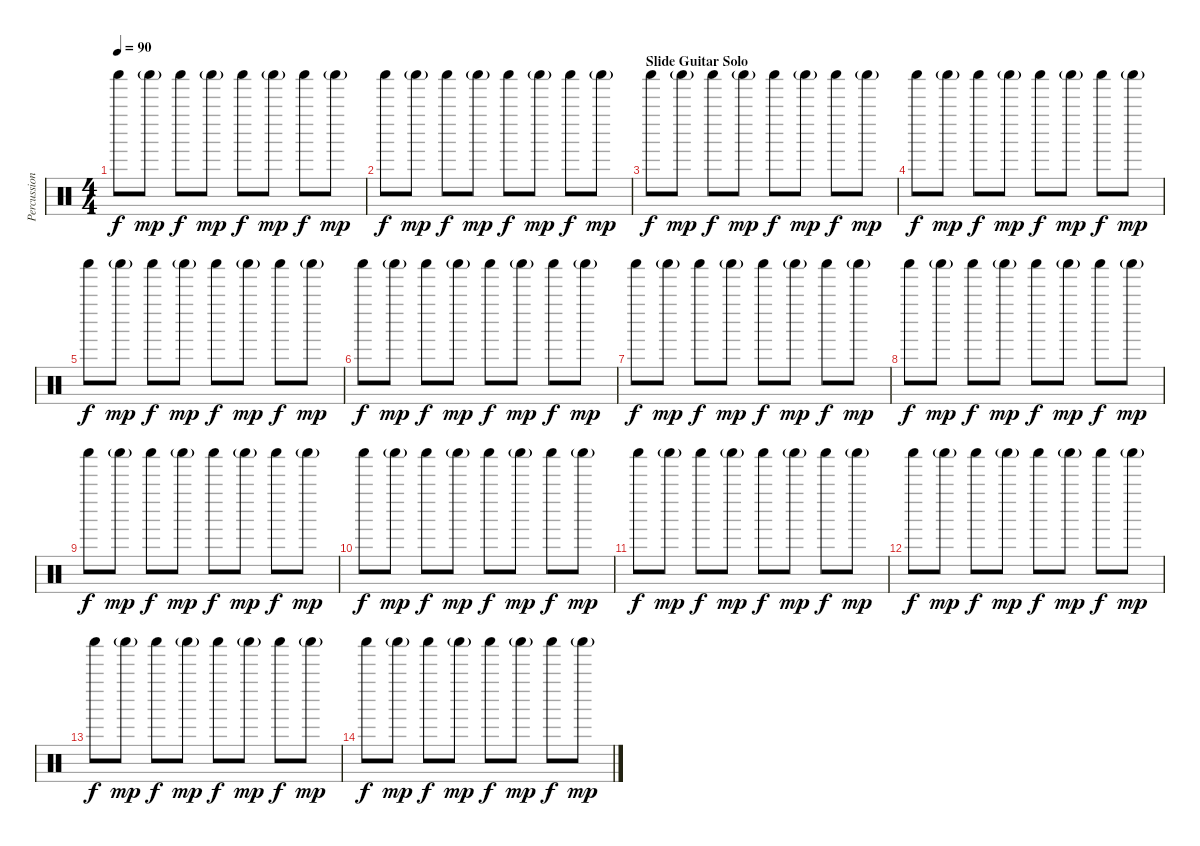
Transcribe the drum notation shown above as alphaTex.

\track ("Percussion 2" "Percussion") {instrument percussion}
\staff {score}
\articulation defaults
\ts (4 4)
\tempo 90
\clef neutral
\ks c "Shaker (hit)".8{dy f} "Shaker (hit)"{g}.8{dy mp} "Shaker (hit)".8{dy f} "Shaker (hit)"{g}.8{dy mp} "Shaker (hit)".8{dy f} "Shaker (hit)"{g}.8{dy mp} "Shaker (hit)".8{dy f} "Shaker (hit)"{g}.8{dy mp}
|
"Shaker (hit)".8{dy f} "Shaker (hit)"{g}.8{dy mp} "Shaker (hit)".8{dy f} "Shaker (hit)"{g}.8{dy mp} "Shaker (hit)".8{dy f} "Shaker (hit)"{g}.8{dy mp} "Shaker (hit)".8{dy f} "Shaker (hit)"{g}.8{dy mp} |
\section ("" "Slide Guitar Solo")
"Shaker (hit)".8{dy f} "Shaker (hit)"{g}.8{dy mp} "Shaker (hit)".8{dy f} "Shaker (hit)"{g}.8{dy mp} "Shaker (hit)".8{dy f} "Shaker (hit)"{g}.8{dy mp} "Shaker (hit)".8{dy f} "Shaker (hit)"{g}.8{dy mp} |
"Shaker (hit)".8{dy f} "Shaker (hit)"{g}.8{dy mp} "Shaker (hit)".8{dy f} "Shaker (hit)"{g}.8{dy mp} "Shaker (hit)".8{dy f} "Shaker (hit)"{g}.8{dy mp} "Shaker (hit)".8{dy f} "Shaker (hit)"{g}.8{dy mp} |
"Shaker (hit)".8{dy f} "Shaker (hit)"{g}.8{dy mp} "Shaker (hit)".8{dy f} "Shaker (hit)"{g}.8{dy mp} "Shaker (hit)".8{dy f} "Shaker (hit)"{g}.8{dy mp} "Shaker (hit)".8{dy f} "Shaker (hit)"{g}.8{dy mp} |
"Shaker (hit)".8{dy f} "Shaker (hit)"{g}.8{dy mp} "Shaker (hit)".8{dy f} "Shaker (hit)"{g}.8{dy mp} "Shaker (hit)".8{dy f} "Shaker (hit)"{g}.8{dy mp} "Shaker (hit)".8{dy f} "Shaker (hit)"{g}.8{dy mp} |
"Shaker (hit)".8{dy f} "Shaker (hit)"{g}.8{dy mp} "Shaker (hit)".8{dy f} "Shaker (hit)"{g}.8{dy mp} "Shaker (hit)".8{dy f} "Shaker (hit)"{g}.8{dy mp} "Shaker (hit)".8{dy f} "Shaker (hit)"{g}.8{dy mp} |
"Shaker (hit)".8{dy f} "Shaker (hit)"{g}.8{dy mp} "Shaker (hit)".8{dy f} "Shaker (hit)"{g}.8{dy mp} "Shaker (hit)".8{dy f} "Shaker (hit)"{g}.8{dy mp} "Shaker (hit)".8{dy f} "Shaker (hit)"{g}.8{dy mp} |
"Shaker (hit)".8{dy f} "Shaker (hit)"{g}.8{dy mp} "Shaker (hit)".8{dy f} "Shaker (hit)"{g}.8{dy mp} "Shaker (hit)".8{dy f} "Shaker (hit)"{g}.8{dy mp} "Shaker (hit)".8{dy f} "Shaker (hit)"{g}.8{dy mp} |
"Shaker (hit)".8{dy f} "Shaker (hit)"{g}.8{dy mp} "Shaker (hit)".8{dy f} "Shaker (hit)"{g}.8{dy mp} "Shaker (hit)".8{dy f} "Shaker (hit)"{g}.8{dy mp} "Shaker (hit)".8{dy f} "Shaker (hit)"{g}.8{dy mp} |
"Shaker (hit)".8{dy f} "Shaker (hit)"{g}.8{dy mp} "Shaker (hit)".8{dy f} "Shaker (hit)"{g}.8{dy mp} "Shaker (hit)".8{dy f} "Shaker (hit)"{g}.8{dy mp} "Shaker (hit)".8{dy f} "Shaker (hit)"{g}.8{dy mp} |
"Shaker (hit)".8{dy f} "Shaker (hit)"{g}.8{dy mp} "Shaker (hit)".8{dy f} "Shaker (hit)"{g}.8{dy mp} "Shaker (hit)".8{dy f} "Shaker (hit)"{g}.8{dy mp} "Shaker (hit)".8{dy f} "Shaker (hit)"{g}.8{dy mp} |
"Shaker (hit)".8{dy f} "Shaker (hit)"{g}.8{dy mp} "Shaker (hit)".8{dy f} "Shaker (hit)"{g}.8{dy mp} "Shaker (hit)".8{dy f} "Shaker (hit)"{g}.8{dy mp} "Shaker (hit)".8{dy f} "Shaker (hit)"{g}.8{dy mp} |
"Shaker (hit)".8{dy f} "Shaker (hit)"{g}.8{dy mp} "Shaker (hit)".8{dy f} "Shaker (hit)"{g}.8{dy mp} "Shaker (hit)".8{dy f} "Shaker (hit)"{g}.8{dy mp} "Shaker (hit)".8{dy f} "Shaker (hit)"{g}.8{dy mp}
